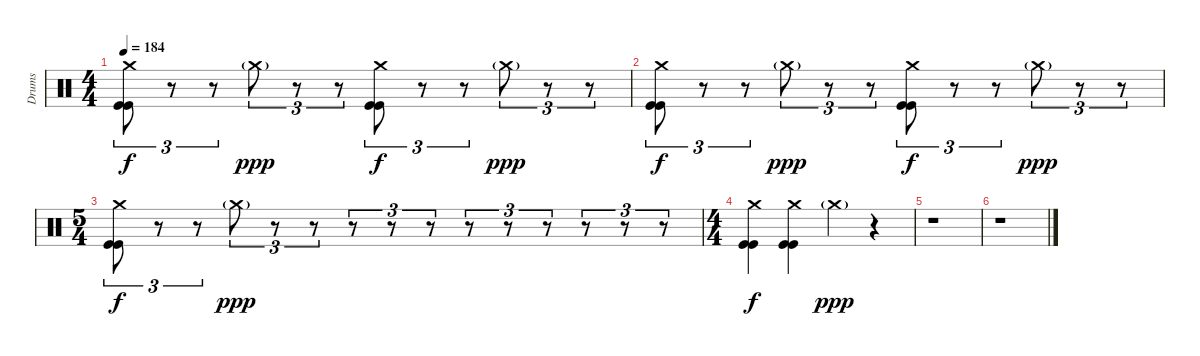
\track ("Drums" "Drums") {instrument percussion}
\staff {score}
\articulation defaults
\ts (4 4)
\tempo 184
\clef neutral
\ks c
("Crash medium (hit)" "Kick (hit)" "Kick (hit)").8{tu (3 2) dy f} r.8{tu (3 2)} r.8{tu (3 2)} "Crash medium (hit)"{g}.8{tu (3 2) dy ppp} r.8{tu (3 2)} r.8{tu (3 2)} ("Crash medium (hit)" "Kick (hit)" "Kick (hit)").8{tu (3 2) dy f} r.8{tu (3 2)} r.8{tu (3 2)} "Crash medium (hit)"{g}.8{tu (3 2) dy ppp} r.8{tu (3 2)} r.8{tu (3 2)} |
("Crash medium (hit)" "Kick (hit)" "Kick (hit)").8{tu (3 2) dy f} r.8{tu (3 2)} r.8{tu (3 2)} "Crash medium (hit)"{g}.8{tu (3 2) dy ppp} r.8{tu (3 2)} r.8{tu (3 2)} ("Crash medium (hit)" "Kick (hit)" "Kick (hit)").8{tu (3 2) dy f} r.8{tu (3 2)} r.8{tu (3 2)} "Crash medium (hit)"{g}.8{tu (3 2) dy ppp} r.8{tu (3 2)} r.8{tu (3 2)} |
\ts (5 4)
("Crash medium (hit)" "Kick (hit)" "Kick (hit)").8{tu (3 2) dy f} r.8{tu (3 2)} r.8{tu (3 2)} "Crash medium (hit)"{g}.8{tu (3 2) dy ppp} r.8{tu (3 2)} r.8{tu (3 2)} r.8{tu (3 2)} r.8{tu (3 2)} r.8{tu (3 2)} r.8{tu (3 2)} r.8{tu (3 2)} r.8{tu (3 2)} r.8{tu (3 2)} r.8{tu (3 2)} r.8{tu (3 2)} |
\ts (4 4)
("Crash medium (hit)" "Kick (hit)" "Kick (hit)").4{dy f} ("Crash medium (hit)" "Kick (hit)" "Kick (hit)").4 "Crash medium (hit)"{g}.4{dy ppp} r.4 |
r.1 |
r.1
